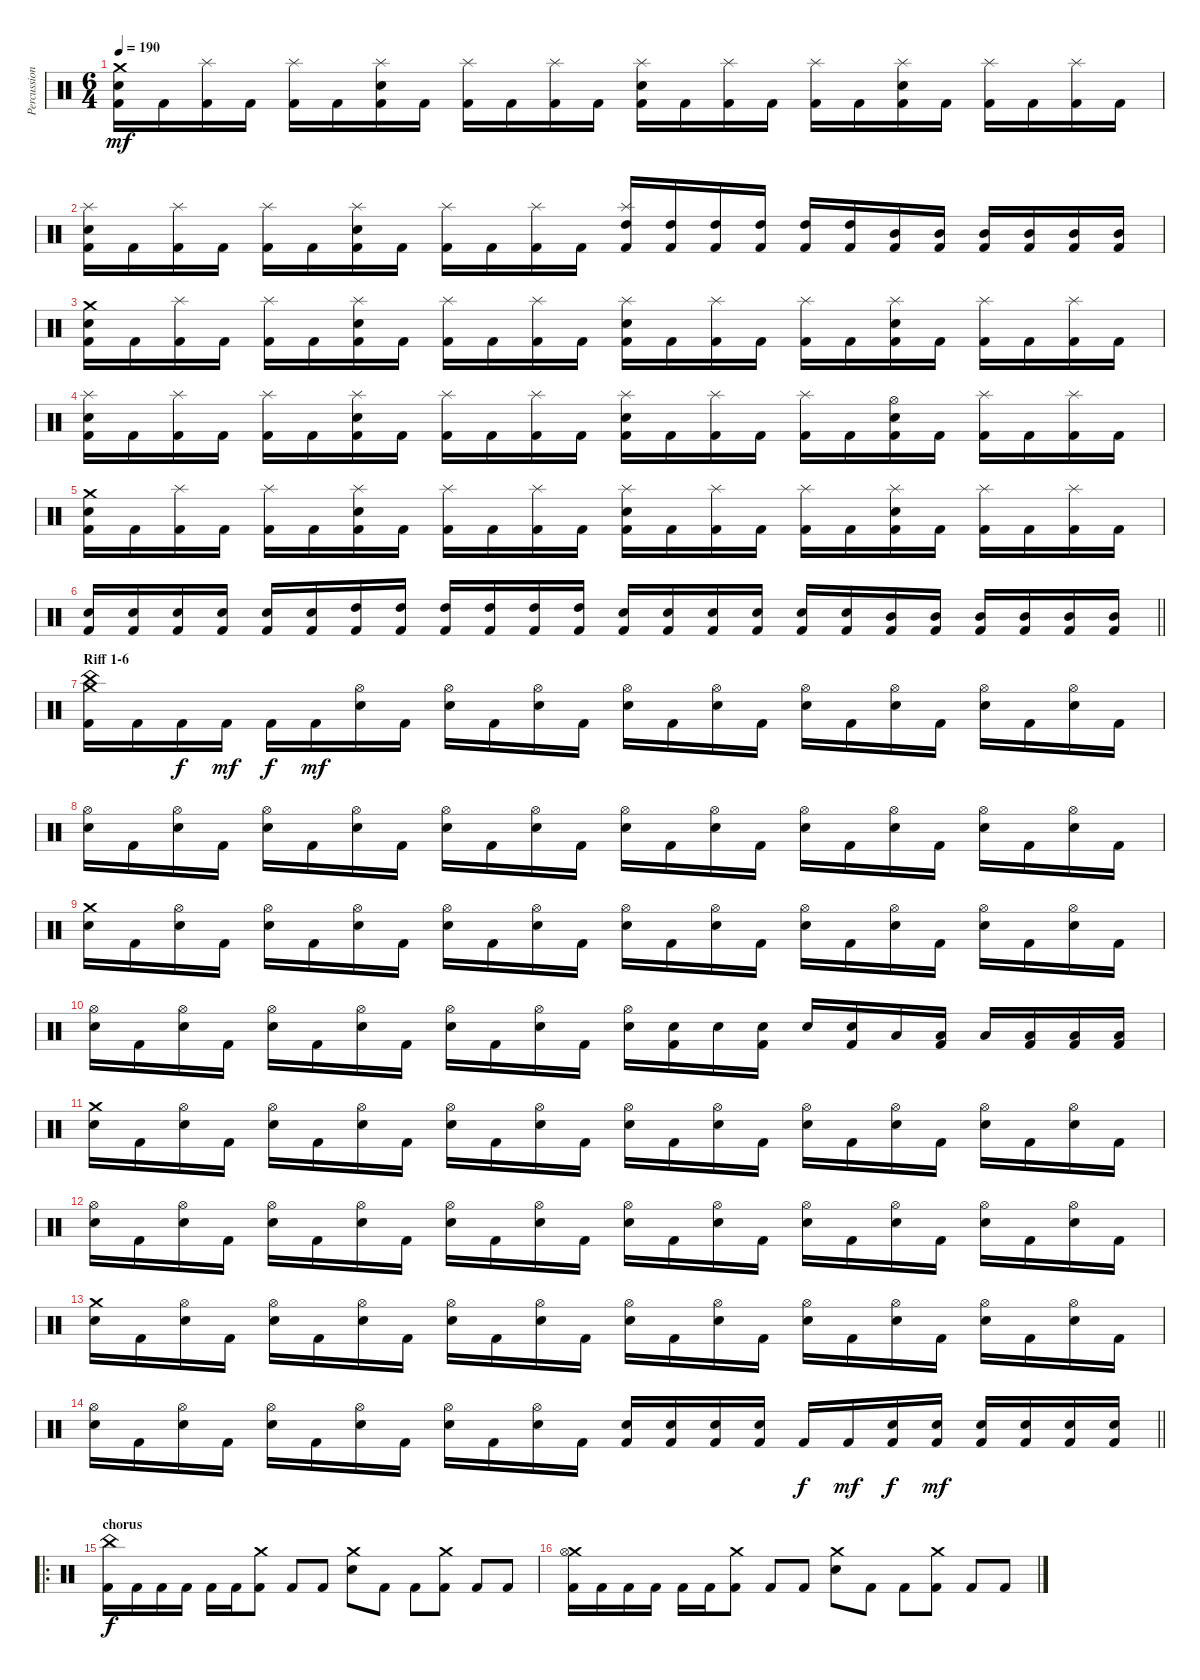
\track ("Percussions" "Percussion") {instrument percussion}
\staff {score}
\articulation defaults
\ts (6 4)
\tempo 190
\clef neutral
\ks c
("Crash medium (hit)" "Electric Snare (hit)" "Kick (hit) 2").16{dy mf} "Kick (hit) 2".16 ("Splash (hit)" "Kick (hit) 2").16 "Kick (hit) 2".16 ("Splash (hit)" "Kick (hit) 2").16 "Kick (hit) 2".16 ("Splash (hit)" "Electric Snare (hit)" "Kick (hit) 2").16 "Kick (hit) 2".16 ("Splash (hit)" "Kick (hit) 2").16 "Kick (hit) 2".16 ("Splash (hit)" "Kick (hit) 2").16 "Kick (hit) 2".16 ("Splash (hit)" "Electric Snare (hit)" "Kick (hit) 2").16 "Kick (hit) 2".16 ("Splash (hit)" "Kick (hit) 2").16 "Kick (hit) 2".16 ("Splash (hit)" "Kick (hit) 2").16 "Kick (hit) 2".16 ("Splash (hit)" "Electric Snare (hit)" "Kick (hit) 2").16 "Kick (hit) 2".16 ("Splash (hit)" "Kick (hit) 2").16 "Kick (hit) 2".16 ("Splash (hit)" "Kick (hit) 2").16 "Kick (hit) 2".16 |
("Splash (hit)" "Electric Snare (hit)" "Kick (hit) 2").16 "Kick (hit) 2".16 ("Splash (hit)" "Kick (hit) 2").16 "Kick (hit) 2".16 ("Splash (hit)" "Kick (hit) 2").16 "Kick (hit) 2".16 ("Splash (hit)" "Electric Snare (hit)" "Kick (hit) 2").16 "Kick (hit) 2".16 ("Splash (hit)" "Kick (hit) 2").16 "Kick (hit) 2".16 ("Splash (hit)" "Kick (hit) 2").16 "Kick (hit) 2".16 ("Splash (hit)" "High Tom (hit)" "Kick (hit) 2").16 ("High Tom (hit)" "Kick (hit) 2").16 ("High Tom (hit)" "Kick (hit) 2").16 ("High Tom (hit)" "Kick (hit) 2").16 ("High Tom (hit)" "Kick (hit) 2").16 ("High Tom (hit)" "Kick (hit) 2").16 ("Mid Tom (hit)" "Kick (hit) 2").16 ("Mid Tom (hit)" "Kick (hit) 2").16 ("Mid Tom (hit)" "Kick (hit) 2").16 ("Mid Tom (hit)" "Kick (hit) 2").16 ("Mid Tom (hit)" "Kick (hit) 2").16 ("Mid Tom (hit)" "Kick (hit) 2").16 |
("Crash medium (hit)" "Electric Snare (hit)" "Kick (hit) 2").16 "Kick (hit) 2".16 ("Splash (hit)" "Kick (hit) 2").16 "Kick (hit) 2".16 ("Splash (hit)" "Kick (hit) 2").16 "Kick (hit) 2".16 ("Splash (hit)" "Electric Snare (hit)" "Kick (hit) 2").16 "Kick (hit) 2".16 ("Splash (hit)" "Kick (hit) 2").16 "Kick (hit) 2".16 ("Splash (hit)" "Kick (hit) 2").16 "Kick (hit) 2".16 ("Splash (hit)" "Electric Snare (hit)" "Kick (hit) 2").16 "Kick (hit) 2".16 ("Splash (hit)" "Kick (hit) 2").16 "Kick (hit) 2".16 ("Splash (hit)" "Kick (hit) 2").16 "Kick (hit) 2".16 ("Splash (hit)" "Electric Snare (hit)" "Kick (hit) 2").16 "Kick (hit) 2".16 ("Splash (hit)" "Kick (hit) 2").16 "Kick (hit) 2".16 ("Splash (hit)" "Kick (hit) 2").16 "Kick (hit) 2".16 |
("Splash (hit)" "Electric Snare (hit)" "Kick (hit) 2").16 "Kick (hit) 2".16 ("Splash (hit)" "Kick (hit) 2").16 "Kick (hit) 2".16 ("Splash (hit)" "Kick (hit) 2").16 "Kick (hit) 2".16 ("Splash (hit)" "Electric Snare (hit)" "Kick (hit) 2").16 "Kick (hit) 2".16 ("Splash (hit)" "Kick (hit) 2").16 "Kick (hit) 2".16 ("Splash (hit)" "Kick (hit) 2").16 "Kick (hit) 2".16 ("Splash (hit)" "Electric Snare (hit)" "Kick (hit) 2").16 "Kick (hit) 2".16 ("Splash (hit)" "Kick (hit) 2").16 "Kick (hit) 2".16 ("Splash (hit)" "Kick (hit) 2").16 "Kick (hit) 2".16 ("Hi-Hat (open)" "Electric Snare (hit)" "Kick (hit) 2").16 "Kick (hit) 2".16 ("Splash (hit)" "Kick (hit) 2").16 "Kick (hit) 2".16 ("Splash (hit)" "Kick (hit) 2").16 "Kick (hit) 2".16 |
("Crash medium (hit)" "Electric Snare (hit)" "Kick (hit) 2").16 "Kick (hit) 2".16 ("Splash (hit)" "Kick (hit) 2").16 "Kick (hit) 2".16 ("Splash (hit)" "Kick (hit) 2").16 "Kick (hit) 2".16 ("Splash (hit)" "Electric Snare (hit)" "Kick (hit) 2").16 "Kick (hit) 2".16 ("Splash (hit)" "Kick (hit) 2").16 "Kick (hit) 2".16 ("Splash (hit)" "Kick (hit) 2").16 "Kick (hit) 2".16 ("Splash (hit)" "Electric Snare (hit)" "Kick (hit) 2").16 "Kick (hit) 2".16 ("Splash (hit)" "Kick (hit) 2").16 "Kick (hit) 2".16 ("Splash (hit)" "Kick (hit) 2").16 "Kick (hit) 2".16 ("Splash (hit)" "Electric Snare (hit)" "Kick (hit) 2").16 "Kick (hit) 2".16 ("Splash (hit)" "Kick (hit) 2").16 "Kick (hit) 2".16 ("Splash (hit)" "Kick (hit) 2").16 "Kick (hit) 2".16 |
\barLineRight lightlight
("Electric Snare (hit)" "Kick (hit) 2").16 ("Electric Snare (hit)" "Kick (hit) 2").16 ("Electric Snare (hit)" "Kick (hit) 2").16 ("Electric Snare (hit)" "Kick (hit) 2").16 ("Electric Snare (hit)" "Kick (hit) 2").16 ("Electric Snare (hit)" "Kick (hit) 2").16 ("High Tom (hit)" "Kick (hit) 2").16 ("High Tom (hit)" "Kick (hit) 2").16 ("High Tom (hit)" "Kick (hit) 2").16 ("High Tom (hit)" "Kick (hit) 2").16 ("High Tom (hit)" "Kick (hit) 2").16 ("High Tom (hit)" "Kick (hit) 2").16 ("Electric Snare (hit)" "Kick (hit) 2").16 ("Electric Snare (hit)" "Kick (hit) 2").16 ("Electric Snare (hit)" "Kick (hit) 2").16 ("Electric Snare (hit)" "Kick (hit) 2").16 ("Electric Snare (hit)" "Kick (hit) 2").16 ("Electric Snare (hit)" "Kick (hit) 2").16 ("Mid Tom (hit)" "Kick (hit) 2").16 ("Mid Tom (hit)" "Kick (hit) 2").16 ("Mid Tom (hit)" "Kick (hit) 2").16 ("Mid Tom (hit)" "Kick (hit) 2").16 ("Mid Tom (hit)" "Kick (hit) 2").16 ("Mid Tom (hit)" "Kick (hit) 2").16 |
\section ("" "Riff 1-6")
("Crash medium (hit)" "China (hit)" "Kick (hit) 2").16 "Kick (hit) 2".16 "Kick (hit) 2".16{dy f} "Kick (hit) 2".16{dy mf} "Kick (hit) 2".16{dy f} "Kick (hit) 2".16{dy mf} ("Hi-Hat (open)" "Electric Snare (hit)").16 "Kick (hit) 2".16 ("Hi-Hat (open)" "Electric Snare (hit)").16 "Kick (hit) 2".16 ("Hi-Hat (open)" "Electric Snare (hit)").16 "Kick (hit) 2".16 ("Hi-Hat (open)" "Electric Snare (hit)").16 "Kick (hit) 2".16 ("Hi-Hat (open)" "Electric Snare (hit)").16 "Kick (hit) 2".16 ("Hi-Hat (open)" "Electric Snare (hit)").16 "Kick (hit) 2".16 ("Hi-Hat (open)" "Electric Snare (hit)").16 "Kick (hit) 2".16 ("Hi-Hat (open)" "Electric Snare (hit)").16 "Kick (hit) 2".16 ("Hi-Hat (open)" "Electric Snare (hit)").16 "Kick (hit) 2".16 |
("Hi-Hat (open)" "Electric Snare (hit)").16 "Kick (hit) 2".16 ("Hi-Hat (open)" "Electric Snare (hit)").16 "Kick (hit) 2".16 ("Hi-Hat (open)" "Electric Snare (hit)").16 "Kick (hit) 2".16 ("Hi-Hat (open)" "Electric Snare (hit)").16 "Kick (hit) 2".16 ("Hi-Hat (open)" "Electric Snare (hit)").16 "Kick (hit) 2".16 ("Hi-Hat (open)" "Electric Snare (hit)").16 "Kick (hit) 2".16 ("Hi-Hat (open)" "Electric Snare (hit)").16 "Kick (hit) 2".16 ("Hi-Hat (open)" "Electric Snare (hit)").16 "Kick (hit) 2".16 ("Hi-Hat (open)" "Electric Snare (hit)").16 "Kick (hit) 2".16 ("Hi-Hat (open)" "Electric Snare (hit)").16 "Kick (hit) 2".16 ("Hi-Hat (open)" "Electric Snare (hit)").16 "Kick (hit) 2".16 ("Hi-Hat (open)" "Electric Snare (hit)").16 "Kick (hit) 2".16 |
("Crash medium (hit)" "Electric Snare (hit)").16 "Kick (hit) 2".16 ("Hi-Hat (open)" "Electric Snare (hit)").16 "Kick (hit) 2".16 ("Hi-Hat (open)" "Electric Snare (hit)").16 "Kick (hit) 2".16 ("Hi-Hat (open)" "Electric Snare (hit)").16 "Kick (hit) 2".16 ("Hi-Hat (open)" "Electric Snare (hit)").16 "Kick (hit) 2".16 ("Hi-Hat (open)" "Electric Snare (hit)").16 "Kick (hit) 2".16 ("Hi-Hat (open)" "Electric Snare (hit)").16 "Kick (hit) 2".16 ("Hi-Hat (open)" "Electric Snare (hit)").16 "Kick (hit) 2".16 ("Hi-Hat (open)" "Electric Snare (hit)").16 "Kick (hit) 2".16 ("Hi-Hat (open)" "Electric Snare (hit)").16 "Kick (hit) 2".16 ("Hi-Hat (open)" "Electric Snare (hit)").16 "Kick (hit) 2".16 ("Hi-Hat (open)" "Electric Snare (hit)").16 "Kick (hit) 2".16 |
("Hi-Hat (open)" "Electric Snare (hit)").16 "Kick (hit) 2".16 ("Hi-Hat (open)" "Electric Snare (hit)").16 "Kick (hit) 2".16 ("Hi-Hat (open)" "Electric Snare (hit)").16 "Kick (hit) 2".16 ("Hi-Hat (open)" "Electric Snare (hit)").16 "Kick (hit) 2".16 ("Hi-Hat (open)" "Electric Snare (hit)").16 "Kick (hit) 2".16 ("Hi-Hat (open)" "Electric Snare (hit)").16 "Kick (hit) 2".16 ("Hi-Hat (open)" "Electric Snare (hit)").16 ("Electric Snare (hit)" "Kick (hit) 2").16 "Electric Snare (hit)".16 ("Electric Snare (hit)" "Kick (hit) 2").16 "Electric Snare (hit)".16 ("Electric Snare (hit)" "Kick (hit) 2").16 "Low Tom (hit)".16 ("Low Tom (hit)" "Kick (hit) 2").16 "Low Tom (hit)".16 ("Low Tom (hit)" "Kick (hit) 2").16 ("Low Tom (hit)" "Kick (hit) 2").16 ("Low Tom (hit)" "Kick (hit) 2").16 |
("Crash medium (hit)" "Electric Snare (hit)").16 "Kick (hit) 2".16 ("Hi-Hat (open)" "Electric Snare (hit)").16 "Kick (hit) 2".16 ("Hi-Hat (open)" "Electric Snare (hit)").16 "Kick (hit) 2".16 ("Hi-Hat (open)" "Electric Snare (hit)").16 "Kick (hit) 2".16 ("Hi-Hat (open)" "Electric Snare (hit)").16 "Kick (hit) 2".16 ("Hi-Hat (open)" "Electric Snare (hit)").16 "Kick (hit) 2".16 ("Hi-Hat (open)" "Electric Snare (hit)").16 "Kick (hit) 2".16 ("Hi-Hat (open)" "Electric Snare (hit)").16 "Kick (hit) 2".16 ("Hi-Hat (open)" "Electric Snare (hit)").16 "Kick (hit) 2".16 ("Hi-Hat (open)" "Electric Snare (hit)").16 "Kick (hit) 2".16 ("Hi-Hat (open)" "Electric Snare (hit)").16 "Kick (hit) 2".16 ("Hi-Hat (open)" "Electric Snare (hit)").16 "Kick (hit) 2".16 |
("Hi-Hat (open)" "Electric Snare (hit)").16 "Kick (hit) 2".16 ("Hi-Hat (open)" "Electric Snare (hit)").16 "Kick (hit) 2".16 ("Hi-Hat (open)" "Electric Snare (hit)").16 "Kick (hit) 2".16 ("Hi-Hat (open)" "Electric Snare (hit)").16 "Kick (hit) 2".16 ("Hi-Hat (open)" "Electric Snare (hit)").16 "Kick (hit) 2".16 ("Hi-Hat (open)" "Electric Snare (hit)").16 "Kick (hit) 2".16 ("Hi-Hat (open)" "Electric Snare (hit)").16 "Kick (hit) 2".16 ("Hi-Hat (open)" "Electric Snare (hit)").16 "Kick (hit) 2".16 ("Hi-Hat (open)" "Electric Snare (hit)").16 "Kick (hit) 2".16 ("Hi-Hat (open)" "Electric Snare (hit)").16 "Kick (hit) 2".16 ("Hi-Hat (open)" "Electric Snare (hit)").16 "Kick (hit) 2".16 ("Hi-Hat (open)" "Electric Snare (hit)").16 "Kick (hit) 2".16 |
("Crash medium (hit)" "Electric Snare (hit)").16 "Kick (hit) 2".16 ("Hi-Hat (open)" "Electric Snare (hit)").16 "Kick (hit) 2".16 ("Hi-Hat (open)" "Electric Snare (hit)").16 "Kick (hit) 2".16 ("Hi-Hat (open)" "Electric Snare (hit)").16 "Kick (hit) 2".16 ("Hi-Hat (open)" "Electric Snare (hit)").16 "Kick (hit) 2".16 ("Hi-Hat (open)" "Electric Snare (hit)").16 "Kick (hit) 2".16 ("Hi-Hat (open)" "Electric Snare (hit)").16 "Kick (hit) 2".16 ("Hi-Hat (open)" "Electric Snare (hit)").16 "Kick (hit) 2".16 ("Hi-Hat (open)" "Electric Snare (hit)").16 "Kick (hit) 2".16 ("Hi-Hat (open)" "Electric Snare (hit)").16 "Kick (hit) 2".16 ("Hi-Hat (open)" "Electric Snare (hit)").16 "Kick (hit) 2".16 ("Hi-Hat (open)" "Electric Snare (hit)").16 "Kick (hit) 2".16 |
\barLineRight lightlight
("Hi-Hat (open)" "Electric Snare (hit)").16 "Kick (hit) 2".16 ("Hi-Hat (open)" "Electric Snare (hit)").16 "Kick (hit) 2".16 ("Hi-Hat (open)" "Electric Snare (hit)").16 "Kick (hit) 2".16 ("Hi-Hat (open)" "Electric Snare (hit)").16 "Kick (hit) 2".16 ("Hi-Hat (open)" "Electric Snare (hit)").16 "Kick (hit) 2".16 ("Hi-Hat (open)" "Electric Snare (hit)").16 "Kick (hit) 2".16 ("Electric Snare (hit)" "Kick (hit) 2").16 ("Electric Snare (hit)" "Kick (hit) 2").16 ("Electric Snare (hit)" "Kick (hit) 2").16 ("Electric Snare (hit)" "Kick (hit) 2").16 "Kick (hit) 2".16{dy f} "Kick (hit) 2".16{dy mf} ("Electric Snare (hit)" "Kick (hit) 2").16{dy f} ("Electric Snare (hit)" "Kick (hit) 2").16{dy mf} ("Electric Snare (hit)" "Kick (hit) 2").16 ("Electric Snare (hit)" "Kick (hit) 2").16 ("Electric Snare (hit)" "Kick (hit) 2").16 ("Electric Snare (hit)" "Kick (hit) 2").16 |
\ro
\section ("" "chorus")
("China (hit)" "Kick (hit) 2").16{dy f} "Kick (hit) 2".16 "Kick (hit) 2".16 "Kick (hit) 2".16 "Kick (hit) 2".16 "Kick (hit) 2".16 ("Crash medium (hit)" "Kick (hit) 2").8 "Kick (hit) 2".8 "Kick (hit) 2".8 ("Crash medium (hit)" "Electric Snare (hit)").8 "Kick (hit) 2".8 "Kick (hit) 2".8 ("Crash medium (hit)" "Kick (hit) 2").8 "Kick (hit) 2".8 "Kick (hit) 2".8 |
("Crash medium (hit)" "Hi-Hat (open)" "Kick (hit) 2").16 "Kick (hit) 2".16 "Kick (hit) 2".16 "Kick (hit) 2".16 "Kick (hit) 2".16 "Kick (hit) 2".16 ("Crash medium (hit)" "Kick (hit) 2").8 "Kick (hit) 2".8 "Kick (hit) 2".8 ("Crash medium (hit)" "Electric Snare (hit)").8 "Kick (hit) 2".8 "Kick (hit) 2".8 ("Crash medium (hit)" "Kick (hit) 2").8 "Kick (hit) 2".8 "Kick (hit) 2".8
